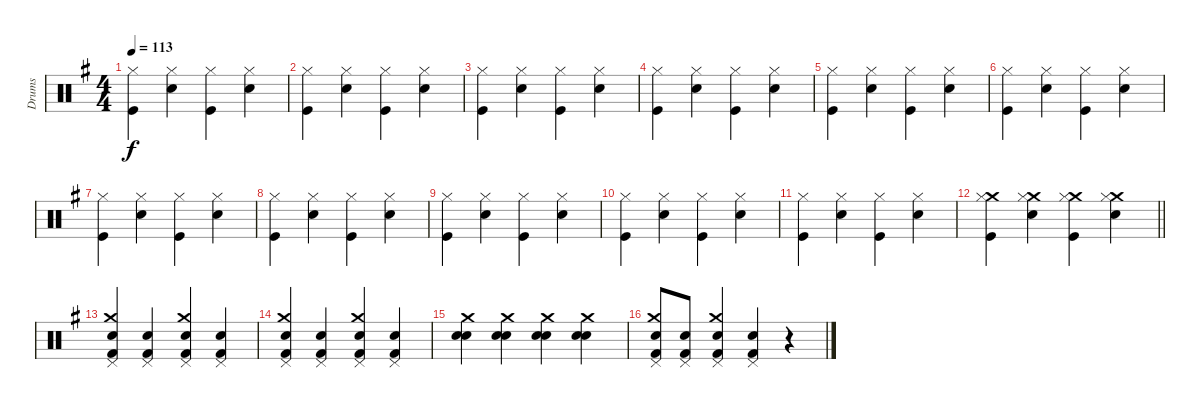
\track ("Drums" "Drums") {instrument percussion}
\staff {score}
\articulation defaults
\ts (4 4)
\tempo 113
\clef neutral
\ks g
("Kick (hit)" "Hi-Hat (closed)").4{dy f} ("Snare (hit) 2" "Hi-Hat (closed)").4 ("Kick (hit)" "Hi-Hat (closed)").4 ("Snare (hit) 2" "Hi-Hat (closed)").4 |
("Kick (hit)" "Hi-Hat (closed)").4 ("Snare (hit) 2" "Hi-Hat (closed)").4 ("Kick (hit)" "Hi-Hat (closed)").4 ("Snare (hit) 2" "Hi-Hat (closed)").4 |
("Kick (hit)" "Hi-Hat (closed)").4 ("Snare (hit) 2" "Hi-Hat (closed)").4 ("Kick (hit)" "Hi-Hat (closed)").4 ("Snare (hit) 2" "Hi-Hat (closed)").4 |
("Kick (hit)" "Hi-Hat (closed)").4 ("Snare (hit) 2" "Hi-Hat (closed)").4 ("Kick (hit)" "Hi-Hat (closed)").4 ("Snare (hit) 2" "Hi-Hat (closed)").4 |
("Kick (hit)" "Hi-Hat (closed)").4 ("Snare (hit) 2" "Hi-Hat (closed)").4 ("Kick (hit)" "Hi-Hat (closed)").4 ("Snare (hit) 2" "Hi-Hat (closed)").4 |
("Kick (hit)" "Hi-Hat (closed)").4 ("Snare (hit) 2" "Hi-Hat (closed)").4 ("Kick (hit)" "Hi-Hat (closed)").4 ("Snare (hit) 2" "Hi-Hat (closed)").4 |
("Kick (hit)" "Hi-Hat (closed)").4 ("Snare (hit) 2" "Hi-Hat (closed)").4 ("Kick (hit)" "Hi-Hat (closed)").4 ("Snare (hit) 2" "Hi-Hat (closed)").4 |
("Kick (hit)" "Hi-Hat (closed)").4 ("Snare (hit) 2" "Hi-Hat (closed)").4 ("Kick (hit)" "Hi-Hat (closed)").4 ("Snare (hit) 2" "Hi-Hat (closed)").4 |
("Kick (hit)" "Hi-Hat (closed)").4 ("Snare (hit) 2" "Hi-Hat (closed)").4 ("Kick (hit)" "Hi-Hat (closed)").4 ("Snare (hit) 2" "Hi-Hat (closed)").4 |
("Kick (hit)" "Hi-Hat (closed)").4 ("Snare (hit) 2" "Hi-Hat (closed)").4 ("Kick (hit)" "Hi-Hat (closed)").4 ("Snare (hit) 2" "Hi-Hat (closed)").4 |
("Kick (hit)" "Hi-Hat (closed)").4 ("Snare (hit) 2" "Hi-Hat (closed)").4 ("Kick (hit)" "Hi-Hat (closed)").4 ("Snare (hit) 2" "Hi-Hat (closed)").4 |
\barLineRight lightlight
("Kick (hit)" "Crash medium (hit)" "Hi-Hat (closed)").4 ("Snare (hit) 2" "Crash medium (hit)" "Hi-Hat (closed)").4 ("Kick (hit)" "Crash medium (hit)" "Hi-Hat (closed)").4 ("Snare (hit) 2" "Crash medium (hit)" "Hi-Hat (closed)").4 |
("Kick (hit) 2" "Snare (hit) 2" "Crash medium (hit)" "Pedal Hi-Hat (hit)").4 ("Snare (hit) 2" "Kick (hit) 2" "Pedal Hi-Hat (hit)").4 ("Snare (hit) 2" "Kick (hit) 2" "Crash medium (hit)" "Pedal Hi-Hat (hit)").4 ("Snare (hit) 2" "Kick (hit) 2" "Pedal Hi-Hat (hit)").4 |
("Kick (hit) 2" "Snare (hit) 2" "Crash medium (hit)" "Pedal Hi-Hat (hit)").4 ("Snare (hit) 2" "Kick (hit) 2" "Pedal Hi-Hat (hit)").4 ("Snare (hit) 2" "Kick (hit) 2" "Crash medium (hit)" "Pedal Hi-Hat (hit)").4 ("Snare (hit) 2" "Kick (hit) 2" "Pedal Hi-Hat (hit)").4 |
("Snare (hit) 2" "Snare (hit) 2" "Crash medium (hit)").4 ("Crash medium (hit)" "Snare (hit) 2" "Snare (hit) 2").4 ("Crash medium (hit)" "Snare (hit) 2" "Snare (hit) 2").4 ("Snare (hit) 2" "Snare (hit) 2" "Crash medium (hit)").4 |
("Kick (hit) 2" "Snare (hit) 2" "Crash medium (hit)" "Pedal Hi-Hat (hit)").8 ("Snare (hit) 2" "Kick (hit) 2" "Pedal Hi-Hat (hit)").8 ("Snare (hit) 2" "Kick (hit) 2" "Crash medium (hit)" "Pedal Hi-Hat (hit)").4 ("Snare (hit) 2" "Kick (hit) 2" "Pedal Hi-Hat (hit)").4 r.4
